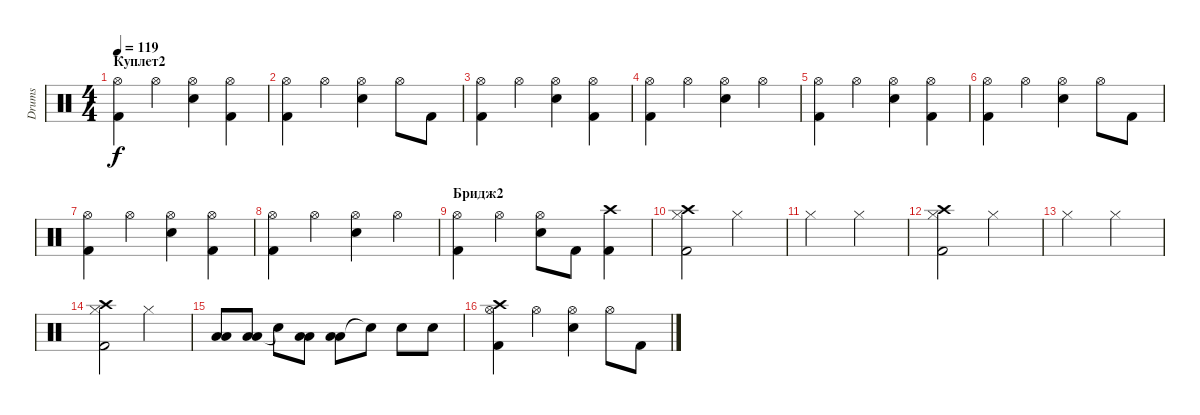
\track ("Drums" "Drums") {instrument percussion}
\staff {score}
\articulation defaults
\ts (4 4)
\section ("" "Куплет2")
\tempo 119
\clef neutral
\ks c
("Kick (hit) 2" "Hi-Hat (open)").4{dy f} "Hi-Hat (open)".4 ("Electric Snare (hit)" "Hi-Hat (open)").4 ("Kick (hit) 2" "Hi-Hat (open)").4 |
("Kick (hit) 2" "Hi-Hat (open)").4 "Hi-Hat (open)".4 ("Electric Snare (hit)" "Hi-Hat (open)").4 "Hi-Hat (open)".8 "Kick (hit) 2".8 |
("Kick (hit) 2" "Hi-Hat (open)").4 "Hi-Hat (open)".4 ("Electric Snare (hit)" "Hi-Hat (open)").4 ("Kick (hit) 2" "Hi-Hat (open)").4 |
("Kick (hit) 2" "Hi-Hat (open)").4 "Hi-Hat (open)".4 ("Electric Snare (hit)" "Hi-Hat (open)").4 "Hi-Hat (open)".4 |
("Kick (hit) 2" "Hi-Hat (open)").4 "Hi-Hat (open)".4 ("Electric Snare (hit)" "Hi-Hat (open)").4 ("Kick (hit) 2" "Hi-Hat (open)").4 |
("Kick (hit) 2" "Hi-Hat (open)").4 "Hi-Hat (open)".4 ("Electric Snare (hit)" "Hi-Hat (open)").4 "Hi-Hat (open)".8 "Kick (hit) 2".8 |
("Kick (hit) 2" "Hi-Hat (open)").4 "Hi-Hat (open)".4 ("Electric Snare (hit)" "Hi-Hat (open)").4 ("Kick (hit) 2" "Hi-Hat (open)").4 |
("Kick (hit) 2" "Hi-Hat (open)").4 "Hi-Hat (open)".4 ("Electric Snare (hit)" "Hi-Hat (open)").4 "Hi-Hat (open)".4 |
\section ("" "Бридж2")
("Kick (hit) 2" "Hi-Hat (open)").4 "Hi-Hat (open)".4 ("Electric Snare (hit)" "Hi-Hat (open)").8 "Kick (hit) 2".8 ("Kick (hit) 2" "Crash high (hit)").4 |
("Kick (hit) 2" "Hi-Hat (closed)" "Crash high (hit)").2 "Hi-Hat (closed)".2 |
"Hi-Hat (closed)".2 "Hi-Hat (closed)".2 |
("Kick (hit) 2" "Hi-Hat (closed)" "Crash high (hit)").2 "Hi-Hat (closed)".2 |
"Hi-Hat (closed)".2 "Hi-Hat (closed)".2 |
("Kick (hit) 2" "Hi-Hat (closed)" "Crash high (hit)").2 "Hi-Hat (closed)".2 |
("Low Tom (hit)" "Low Floor Tom (hit)").8 ("Low Tom (hit)" "Low Floor Tom (hit)").8 "Snare (hit)"{t}.8 ("Low Tom (hit)" "Low Floor Tom (hit)").8 ("Low Tom (hit)" "Low Floor Tom (hit)").8 "Snare (hit)"{t}.8 "Electric Snare (hit)".8 "Electric Snare (hit)".8 |
("Kick (hit) 2" "Hi-Hat (open)" "Crash high (hit)").4 "Hi-Hat (open)".4 ("Electric Snare (hit)" "Hi-Hat (open)").4 "Hi-Hat (open)".8 "Kick (hit) 2".8
